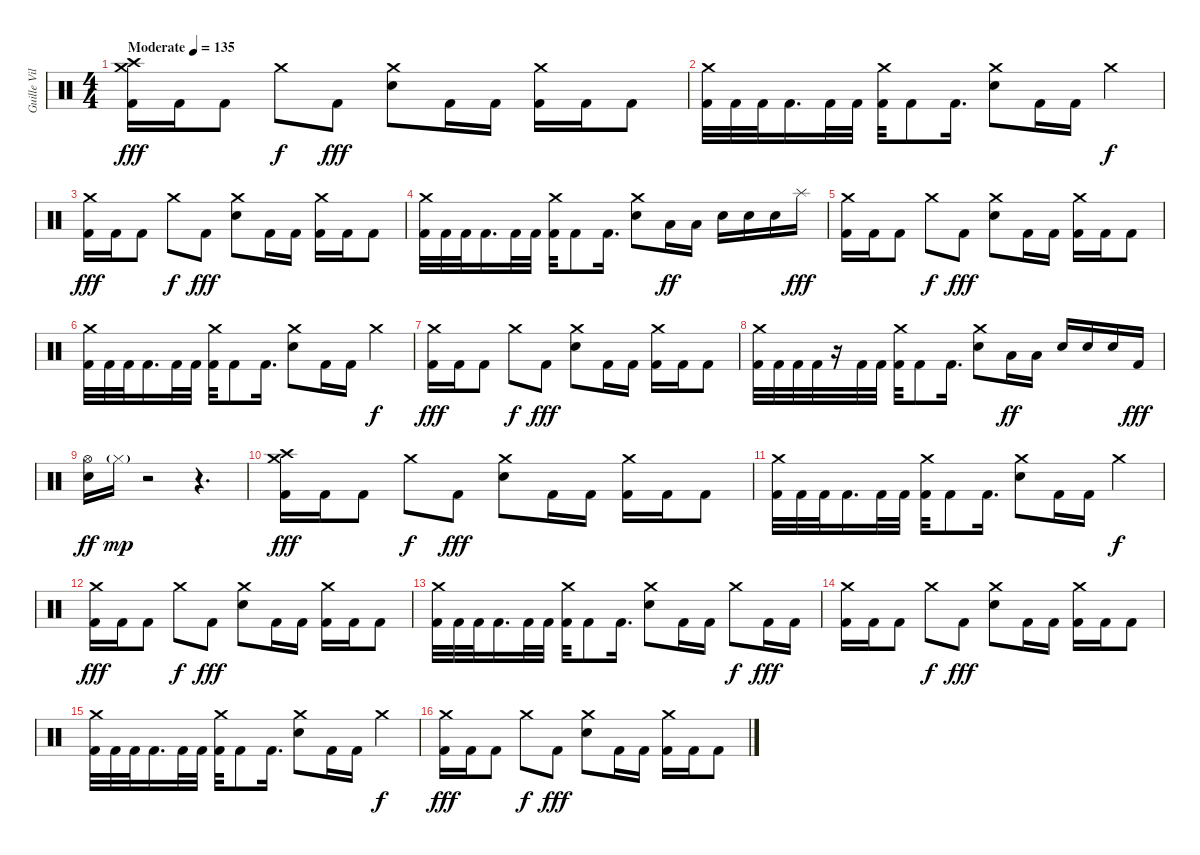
\track ("Guille Vila" "Guille Vil") {instrument percussion}
\staff {score}
\articulation defaults
\ts (4 4)
\tempo (135 "Moderate")
\clef neutral
\ks c
("Crash high (hit)" "Crash medium (hit)" "Kick (hit) 2").16{dy fff} "Kick (hit) 2".16 "Kick (hit) 2".8 "Crash medium (hit)".8{dy f} "Kick (hit) 2".8{dy fff} ("Crash medium (hit)" "Snare (hit) 2").8 "Kick (hit) 2".16 "Kick (hit) 2".16 ("Crash medium (hit)" "Kick (hit) 2").16 "Kick (hit) 2".16 "Kick (hit) 2".8 |
("Crash medium (hit)" "Kick (hit) 2").32 "Kick (hit) 2".32 "Kick (hit) 2".32 "Kick (hit) 2".16{d} "Kick (hit) 2".32 "Kick (hit) 2".32 ("Crash medium (hit)" "Kick (hit) 2").32 "Kick (hit) 2".8 "Kick (hit) 2".16{d} ("Crash medium (hit)" "Snare (hit) 2").8 "Kick (hit) 2".16 "Kick (hit) 2".16 "Crash medium (hit)".4{dy f} |
("Crash medium (hit)" "Kick (hit) 2").16{dy fff} "Kick (hit) 2".16 "Kick (hit) 2".8 "Crash medium (hit)".8{dy f} "Kick (hit) 2".8{dy fff} ("Crash medium (hit)" "Snare (hit) 2").8 "Kick (hit) 2".16 "Kick (hit) 2".16 ("Crash medium (hit)" "Kick (hit) 2").16 "Kick (hit) 2".16 "Kick (hit) 2".8 |
("Crash medium (hit)" "Kick (hit) 2").32 "Kick (hit) 2".32 "Kick (hit) 2".32 "Kick (hit) 2".16{d} "Kick (hit) 2".32 "Kick (hit) 2".32 ("Crash medium (hit)" "Kick (hit) 2").32 "Kick (hit) 2".8 "Kick (hit) 2".16{d} ("Crash medium (hit)" "Snare (hit) 2").8 "Low Tom (hit)".16{dy ff} "Low Tom (hit)".16 "Snare (hit) 2".16 "Snare (hit) 2".16 "Snare (hit) 2".16 "Splash (hit)".16{dy fff} |
("Crash medium (hit)" "Kick (hit) 2").16 "Kick (hit) 2".16 "Kick (hit) 2".8 "Crash medium (hit)".8{dy f} "Kick (hit) 2".8{dy fff} ("Crash medium (hit)" "Snare (hit) 2").8 "Kick (hit) 2".16 "Kick (hit) 2".16 ("Crash medium (hit)" "Kick (hit) 2").16 "Kick (hit) 2".16 "Kick (hit) 2".8 |
("Crash medium (hit)" "Kick (hit) 2").32 "Kick (hit) 2".32 "Kick (hit) 2".32 "Kick (hit) 2".16{d} "Kick (hit) 2".32 "Kick (hit) 2".32 ("Crash medium (hit)" "Kick (hit) 2").32 "Kick (hit) 2".8 "Kick (hit) 2".16{d} ("Crash medium (hit)" "Snare (hit) 2").8 "Kick (hit) 2".16 "Kick (hit) 2".16 "Crash medium (hit)".4{dy f} |
("Crash medium (hit)" "Kick (hit) 2").16{dy fff} "Kick (hit) 2".16 "Kick (hit) 2".8 "Crash medium (hit)".8{dy f} "Kick (hit) 2".8{dy fff} ("Crash medium (hit)" "Snare (hit) 2").8 "Kick (hit) 2".16 "Kick (hit) 2".16 ("Crash medium (hit)" "Kick (hit) 2").16 "Kick (hit) 2".16 "Kick (hit) 2".8 |
("Crash medium (hit)" "Kick (hit) 2").32 "Kick (hit) 2".32 "Kick (hit) 2".32 "Kick (hit) 2".32 r.16 "Kick (hit) 2".32 "Kick (hit) 2".32 ("Crash medium (hit)" "Kick (hit) 2").32 "Kick (hit) 2".8 "Kick (hit) 2".16{d} ("Crash medium (hit)" "Snare (hit) 2").8 "Low Tom (hit)".16{dy ff} "Low Tom (hit)".16 "Snare (hit) 2".16 "Snare (hit) 2".16 "Snare (hit) 2".16 "Kick (hit) 2".16{dy fff} |
("Hi-Hat (open)" "Snare (hit) 2").16{dy ff} "Hi-Hat (closed)"{g}.16{dy mp} r.2 r.4{d} |
("Crash medium (hit)" "Crash high (hit)" "Kick (hit) 2").16{dy fff} "Kick (hit) 2".16 "Kick (hit) 2".8 "Crash medium (hit)".8{dy f} "Kick (hit) 2".8{dy fff} ("Crash medium (hit)" "Snare (hit) 2").8 "Kick (hit) 2".16 "Kick (hit) 2".16 ("Crash medium (hit)" "Kick (hit) 2").16 "Kick (hit) 2".16 "Kick (hit) 2".8 |
("Crash medium (hit)" "Kick (hit) 2").32 "Kick (hit) 2".32 "Kick (hit) 2".32 "Kick (hit) 2".16{d} "Kick (hit) 2".32 "Kick (hit) 2".32 ("Crash medium (hit)" "Kick (hit) 2").32 "Kick (hit) 2".8 "Kick (hit) 2".16{d} ("Crash medium (hit)" "Snare (hit) 2").8 "Kick (hit) 2".16 "Kick (hit) 2".16 "Crash medium (hit)".4{dy f} |
("Crash medium (hit)" "Kick (hit) 2").16{dy fff} "Kick (hit) 2".16 "Kick (hit) 2".8 "Crash medium (hit)".8{dy f} "Kick (hit) 2".8{dy fff} ("Crash medium (hit)" "Snare (hit) 2").8 "Kick (hit) 2".16 "Kick (hit) 2".16 ("Crash medium (hit)" "Kick (hit) 2").16 "Kick (hit) 2".16 "Kick (hit) 2".8 |
("Crash medium (hit)" "Kick (hit) 2").32 "Kick (hit) 2".32 "Kick (hit) 2".32 "Kick (hit) 2".16{d} "Kick (hit) 2".32 "Kick (hit) 2".32 ("Crash medium (hit)" "Kick (hit) 2").32 "Kick (hit) 2".8 "Kick (hit) 2".16{d} ("Crash medium (hit)" "Snare (hit) 2").8 "Kick (hit) 2".16 "Kick (hit) 2".16 "Crash medium (hit)".8{dy f} "Kick (hit) 2".16{dy fff} "Kick (hit) 2".16 |
("Crash medium (hit)" "Kick (hit) 2").16 "Kick (hit) 2".16 "Kick (hit) 2".8 "Crash medium (hit)".8{dy f} "Kick (hit) 2".8{dy fff} ("Crash medium (hit)" "Snare (hit) 2").8 "Kick (hit) 2".16 "Kick (hit) 2".16 ("Crash medium (hit)" "Kick (hit) 2").16 "Kick (hit) 2".16 "Kick (hit) 2".8 |
("Crash medium (hit)" "Kick (hit) 2").32 "Kick (hit) 2".32 "Kick (hit) 2".32 "Kick (hit) 2".16{d} "Kick (hit) 2".32 "Kick (hit) 2".32 ("Crash medium (hit)" "Kick (hit) 2").32 "Kick (hit) 2".8 "Kick (hit) 2".16{d} ("Crash medium (hit)" "Snare (hit) 2").8 "Kick (hit) 2".16 "Kick (hit) 2".16 "Crash medium (hit)".4{dy f} |
("Crash medium (hit)" "Kick (hit) 2").16{dy fff} "Kick (hit) 2".16 "Kick (hit) 2".8 "Crash medium (hit)".8{dy f} "Kick (hit) 2".8{dy fff} ("Crash medium (hit)" "Snare (hit) 2").8 "Kick (hit) 2".16 "Kick (hit) 2".16 ("Crash medium (hit)" "Kick (hit) 2").16 "Kick (hit) 2".16 "Kick (hit) 2".8
